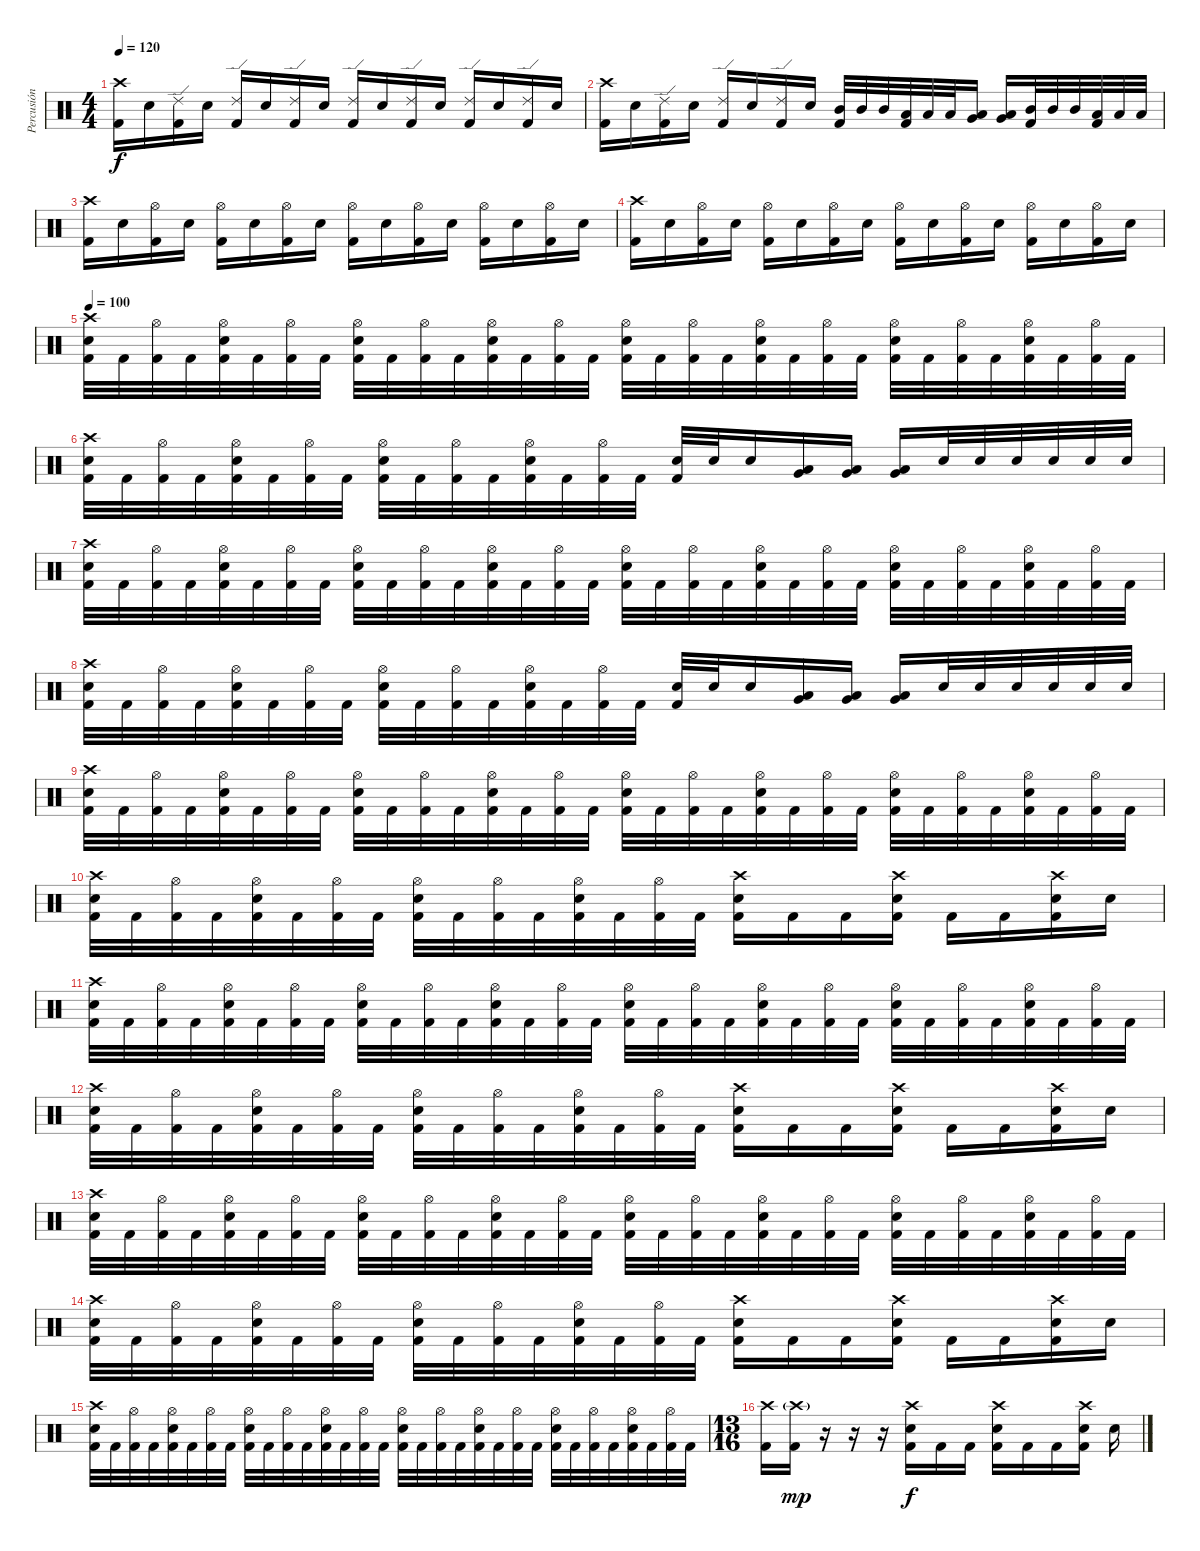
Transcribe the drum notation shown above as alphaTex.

\track ("Percusión" "Percusión") {instrument percussion}
\staff {score}
\articulation defaults
\ts (4 4)
\tempo 120
\clef neutral
\ks c
("Crash high (hit)" "Kick (hit) 2").16{dy f} "Electric Snare (hit)".16 ("Ride (edge) 2" "Kick (hit) 2").16 "Electric Snare (hit)".16 ("Ride (edge) 2" "Kick (hit) 2").16 "Electric Snare (hit)".16 ("Ride (edge) 2" "Kick (hit) 2").16 "Electric Snare (hit)".16 ("Ride (edge) 2" "Kick (hit) 2").16 "Electric Snare (hit)".16 ("Ride (edge) 2" "Kick (hit) 2").16 "Electric Snare (hit)".16 ("Ride (edge) 2" "Kick (hit) 2").16 "Electric Snare (hit)".16 ("Ride (edge) 2" "Kick (hit) 2").16 "Electric Snare (hit)".16 |
("Crash high (hit)" "Kick (hit) 2").16 "Electric Snare (hit)".16 ("Ride (edge) 2" "Kick (hit) 2").16 "Electric Snare (hit)".16 ("Ride (edge) 2" "Kick (hit) 2").16 "Electric Snare (hit)".16 ("Ride (edge) 2" "Kick (hit) 2").16 "Electric Snare (hit)".16 ("Mid Tom (hit)" "Kick (hit) 2").32 "Mid Tom (hit)".32 "Mid Tom (hit)".32 ("Low Tom (hit)" "Kick (hit) 2").32 "Low Tom (hit)".32 "Low Tom (hit)".32 ("Very Low Tom (hit)" "Low Floor Tom (hit)").16 ("Very Low Tom (hit)" "Low Floor Tom (hit)").16 ("Mid Tom (hit)" "Kick (hit) 2").32 "Mid Tom (hit)".32 "Mid Tom (hit)".32 ("Low Tom (hit)" "Kick (hit) 2").32 "Low Tom (hit)".32 "Low Tom (hit)".32 |
("Crash high (hit)" "Kick (hit) 2").16 "Electric Snare (hit)".16 ("Hi-Hat (open)" "Kick (hit) 2").16 "Electric Snare (hit)".16 ("Hi-Hat (open)" "Kick (hit) 2").16 "Electric Snare (hit)".16 ("Hi-Hat (open)" "Kick (hit) 2").16 "Electric Snare (hit)".16 ("Hi-Hat (open)" "Kick (hit) 2").16 "Electric Snare (hit)".16 ("Hi-Hat (open)" "Kick (hit) 2").16 "Electric Snare (hit)".16 ("Hi-Hat (open)" "Kick (hit) 2").16 "Electric Snare (hit)".16 ("Hi-Hat (open)" "Kick (hit) 2").16 "Electric Snare (hit)".16 |
("Crash high (hit)" "Kick (hit) 2").16 "Electric Snare (hit)".16 ("Hi-Hat (open)" "Kick (hit) 2").16 "Electric Snare (hit)".16 ("Hi-Hat (open)" "Kick (hit) 2").16 "Electric Snare (hit)".16 ("Hi-Hat (open)" "Kick (hit) 2").16 "Electric Snare (hit)".16 ("Hi-Hat (open)" "Kick (hit) 2").16 "Electric Snare (hit)".16 ("Hi-Hat (open)" "Kick (hit) 2").16 "Electric Snare (hit)".16 ("Hi-Hat (open)" "Kick (hit) 2").16 "Electric Snare (hit)".16 ("Hi-Hat (open)" "Kick (hit) 2").16 "Electric Snare (hit)".16 |
\tempo 100
("Crash high (hit)" "Electric Snare (hit)" "Kick (hit) 2").32 "Kick (hit) 2".32 ("Hi-Hat (open)" "Kick (hit) 2").32 "Kick (hit) 2".32 ("Hi-Hat (open)" "Electric Snare (hit)" "Kick (hit) 2").32 "Kick (hit) 2".32 ("Hi-Hat (open)" "Kick (hit) 2").32 "Kick (hit) 2".32 ("Hi-Hat (open)" "Electric Snare (hit)" "Kick (hit) 2").32 "Kick (hit) 2".32 ("Hi-Hat (open)" "Kick (hit) 2").32 "Kick (hit) 2".32 ("Hi-Hat (open)" "Electric Snare (hit)" "Kick (hit) 2").32 "Kick (hit) 2".32 ("Hi-Hat (open)" "Kick (hit) 2").32 "Kick (hit) 2".32 ("Hi-Hat (open)" "Electric Snare (hit)" "Kick (hit) 2").32 "Kick (hit) 2".32 ("Hi-Hat (open)" "Kick (hit) 2").32 "Kick (hit) 2".32 ("Hi-Hat (open)" "Electric Snare (hit)" "Kick (hit) 2").32 "Kick (hit) 2".32 ("Hi-Hat (open)" "Kick (hit) 2").32 "Kick (hit) 2".32 ("Hi-Hat (open)" "Electric Snare (hit)" "Kick (hit) 2").32 "Kick (hit) 2".32 ("Hi-Hat (open)" "Kick (hit) 2").32 "Kick (hit) 2".32 ("Hi-Hat (open)" "Electric Snare (hit)" "Kick (hit) 2").32 "Kick (hit) 2".32 ("Hi-Hat (open)" "Kick (hit) 2").32 "Kick (hit) 2".32 |
("Crash high (hit)" "Electric Snare (hit)" "Kick (hit) 2").32 "Kick (hit) 2".32 ("Hi-Hat (open)" "Kick (hit) 2").32 "Kick (hit) 2".32 ("Hi-Hat (open)" "Electric Snare (hit)" "Kick (hit) 2").32 "Kick (hit) 2".32 ("Hi-Hat (open)" "Kick (hit) 2").32 "Kick (hit) 2".32 ("Hi-Hat (open)" "Electric Snare (hit)" "Kick (hit) 2").32 "Kick (hit) 2".32 ("Hi-Hat (open)" "Kick (hit) 2").32 "Kick (hit) 2".32 ("Hi-Hat (open)" "Electric Snare (hit)" "Kick (hit) 2").32 "Kick (hit) 2".32 ("Hi-Hat (open)" "Kick (hit) 2").32 "Kick (hit) 2".32 ("Electric Snare (hit)" "Kick (hit) 2").32 "Electric Snare (hit)".32 "Electric Snare (hit)".16 ("Very Low Tom (hit)" "Low Floor Tom (hit)").16 ("Very Low Tom (hit)" "Low Floor Tom (hit)").16 ("Very Low Tom (hit)" "Low Floor Tom (hit)").16 "Electric Snare (hit)".32 "Electric Snare (hit)".32 "Electric Snare (hit)".32 "Electric Snare (hit)".32 "Electric Snare (hit)".32 "Electric Snare (hit)".32 |
("Crash high (hit)" "Electric Snare (hit)" "Kick (hit) 2").32 "Kick (hit) 2".32 ("Hi-Hat (open)" "Kick (hit) 2").32 "Kick (hit) 2".32 ("Hi-Hat (open)" "Electric Snare (hit)" "Kick (hit) 2").32 "Kick (hit) 2".32 ("Hi-Hat (open)" "Kick (hit) 2").32 "Kick (hit) 2".32 ("Hi-Hat (open)" "Electric Snare (hit)" "Kick (hit) 2").32 "Kick (hit) 2".32 ("Hi-Hat (open)" "Kick (hit) 2").32 "Kick (hit) 2".32 ("Hi-Hat (open)" "Electric Snare (hit)" "Kick (hit) 2").32 "Kick (hit) 2".32 ("Hi-Hat (open)" "Kick (hit) 2").32 "Kick (hit) 2".32 ("Hi-Hat (open)" "Electric Snare (hit)" "Kick (hit) 2").32 "Kick (hit) 2".32 ("Hi-Hat (open)" "Kick (hit) 2").32 "Kick (hit) 2".32 ("Hi-Hat (open)" "Electric Snare (hit)" "Kick (hit) 2").32 "Kick (hit) 2".32 ("Hi-Hat (open)" "Kick (hit) 2").32 "Kick (hit) 2".32 ("Hi-Hat (open)" "Electric Snare (hit)" "Kick (hit) 2").32 "Kick (hit) 2".32 ("Hi-Hat (open)" "Kick (hit) 2").32 "Kick (hit) 2".32 ("Hi-Hat (open)" "Electric Snare (hit)" "Kick (hit) 2").32 "Kick (hit) 2".32 ("Hi-Hat (open)" "Kick (hit) 2").32 "Kick (hit) 2".32 |
("Crash high (hit)" "Electric Snare (hit)" "Kick (hit) 2").32 "Kick (hit) 2".32 ("Hi-Hat (open)" "Kick (hit) 2").32 "Kick (hit) 2".32 ("Hi-Hat (open)" "Electric Snare (hit)" "Kick (hit) 2").32 "Kick (hit) 2".32 ("Hi-Hat (open)" "Kick (hit) 2").32 "Kick (hit) 2".32 ("Hi-Hat (open)" "Electric Snare (hit)" "Kick (hit) 2").32 "Kick (hit) 2".32 ("Hi-Hat (open)" "Kick (hit) 2").32 "Kick (hit) 2".32 ("Hi-Hat (open)" "Electric Snare (hit)" "Kick (hit) 2").32 "Kick (hit) 2".32 ("Hi-Hat (open)" "Kick (hit) 2").32 "Kick (hit) 2".32 ("Electric Snare (hit)" "Kick (hit) 2").32 "Electric Snare (hit)".32 "Electric Snare (hit)".16 ("Very Low Tom (hit)" "Low Floor Tom (hit)").16 ("Very Low Tom (hit)" "Low Floor Tom (hit)").16 ("Very Low Tom (hit)" "Low Floor Tom (hit)").16 "Electric Snare (hit)".32 "Electric Snare (hit)".32 "Electric Snare (hit)".32 "Electric Snare (hit)".32 "Electric Snare (hit)".32 "Electric Snare (hit)".32 |
("Crash high (hit)" "Electric Snare (hit)" "Kick (hit) 2").32 "Kick (hit) 2".32 ("Hi-Hat (open)" "Kick (hit) 2").32 "Kick (hit) 2".32 ("Hi-Hat (open)" "Electric Snare (hit)" "Kick (hit) 2").32 "Kick (hit) 2".32 ("Hi-Hat (open)" "Kick (hit) 2").32 "Kick (hit) 2".32 ("Hi-Hat (open)" "Electric Snare (hit)" "Kick (hit) 2").32 "Kick (hit) 2".32 ("Hi-Hat (open)" "Kick (hit) 2").32 "Kick (hit) 2".32 ("Hi-Hat (open)" "Electric Snare (hit)" "Kick (hit) 2").32 "Kick (hit) 2".32 ("Hi-Hat (open)" "Kick (hit) 2").32 "Kick (hit) 2".32 ("Hi-Hat (open)" "Electric Snare (hit)" "Kick (hit) 2").32 "Kick (hit) 2".32 ("Hi-Hat (open)" "Kick (hit) 2").32 "Kick (hit) 2".32 ("Hi-Hat (open)" "Electric Snare (hit)" "Kick (hit) 2").32 "Kick (hit) 2".32 ("Hi-Hat (open)" "Kick (hit) 2").32 "Kick (hit) 2".32 ("Hi-Hat (open)" "Electric Snare (hit)" "Kick (hit) 2").32 "Kick (hit) 2".32 ("Hi-Hat (open)" "Kick (hit) 2").32 "Kick (hit) 2".32 ("Hi-Hat (open)" "Electric Snare (hit)" "Kick (hit) 2").32 "Kick (hit) 2".32 ("Hi-Hat (open)" "Kick (hit) 2").32 "Kick (hit) 2".32 |
("Crash high (hit)" "Electric Snare (hit)" "Kick (hit) 2").32 "Kick (hit) 2".32 ("Hi-Hat (open)" "Kick (hit) 2").32 "Kick (hit) 2".32 ("Hi-Hat (open)" "Electric Snare (hit)" "Kick (hit) 2").32 "Kick (hit) 2".32 ("Hi-Hat (open)" "Kick (hit) 2").32 "Kick (hit) 2".32 ("Hi-Hat (open)" "Electric Snare (hit)" "Kick (hit) 2").32 "Kick (hit) 2".32 ("Hi-Hat (open)" "Kick (hit) 2").32 "Kick (hit) 2".32 ("Hi-Hat (open)" "Electric Snare (hit)" "Kick (hit) 2").32 "Kick (hit) 2".32 ("Hi-Hat (open)" "Kick (hit) 2").32 "Kick (hit) 2".32 ("Crash high (hit)" "Electric Snare (hit)" "Kick (hit) 2").16 "Kick (hit) 2".16 "Kick (hit) 2".16 ("Crash high (hit)" "Electric Snare (hit)" "Kick (hit) 2").16 "Kick (hit) 2".16 "Kick (hit) 2".16 ("Crash high (hit)" "Electric Snare (hit)" "Kick (hit) 2").16 "Electric Snare (hit)".16 |
("Crash high (hit)" "Electric Snare (hit)" "Kick (hit) 2").32 "Kick (hit) 2".32 ("Hi-Hat (open)" "Kick (hit) 2").32 "Kick (hit) 2".32 ("Hi-Hat (open)" "Electric Snare (hit)" "Kick (hit) 2").32 "Kick (hit) 2".32 ("Hi-Hat (open)" "Kick (hit) 2").32 "Kick (hit) 2".32 ("Hi-Hat (open)" "Electric Snare (hit)" "Kick (hit) 2").32 "Kick (hit) 2".32 ("Hi-Hat (open)" "Kick (hit) 2").32 "Kick (hit) 2".32 ("Hi-Hat (open)" "Electric Snare (hit)" "Kick (hit) 2").32 "Kick (hit) 2".32 ("Hi-Hat (open)" "Kick (hit) 2").32 "Kick (hit) 2".32 ("Hi-Hat (open)" "Electric Snare (hit)" "Kick (hit) 2").32 "Kick (hit) 2".32 ("Hi-Hat (open)" "Kick (hit) 2").32 "Kick (hit) 2".32 ("Hi-Hat (open)" "Electric Snare (hit)" "Kick (hit) 2").32 "Kick (hit) 2".32 ("Hi-Hat (open)" "Kick (hit) 2").32 "Kick (hit) 2".32 ("Hi-Hat (open)" "Electric Snare (hit)" "Kick (hit) 2").32 "Kick (hit) 2".32 ("Hi-Hat (open)" "Kick (hit) 2").32 "Kick (hit) 2".32 ("Hi-Hat (open)" "Electric Snare (hit)" "Kick (hit) 2").32 "Kick (hit) 2".32 ("Hi-Hat (open)" "Kick (hit) 2").32 "Kick (hit) 2".32 |
("Crash high (hit)" "Electric Snare (hit)" "Kick (hit) 2").32 "Kick (hit) 2".32 ("Hi-Hat (open)" "Kick (hit) 2").32 "Kick (hit) 2".32 ("Hi-Hat (open)" "Electric Snare (hit)" "Kick (hit) 2").32 "Kick (hit) 2".32 ("Hi-Hat (open)" "Kick (hit) 2").32 "Kick (hit) 2".32 ("Hi-Hat (open)" "Electric Snare (hit)" "Kick (hit) 2").32 "Kick (hit) 2".32 ("Hi-Hat (open)" "Kick (hit) 2").32 "Kick (hit) 2".32 ("Hi-Hat (open)" "Electric Snare (hit)" "Kick (hit) 2").32 "Kick (hit) 2".32 ("Hi-Hat (open)" "Kick (hit) 2").32 "Kick (hit) 2".32 ("Crash high (hit)" "Electric Snare (hit)" "Kick (hit) 2").16 "Kick (hit) 2".16 "Kick (hit) 2".16 ("Crash high (hit)" "Electric Snare (hit)" "Kick (hit) 2").16 "Kick (hit) 2".16 "Kick (hit) 2".16 ("Crash high (hit)" "Electric Snare (hit)" "Kick (hit) 2").16 "Electric Snare (hit)".16 |
("Crash high (hit)" "Electric Snare (hit)" "Kick (hit) 2").32 "Kick (hit) 2".32 ("Hi-Hat (open)" "Kick (hit) 2").32 "Kick (hit) 2".32 ("Hi-Hat (open)" "Electric Snare (hit)" "Kick (hit) 2").32 "Kick (hit) 2".32 ("Hi-Hat (open)" "Kick (hit) 2").32 "Kick (hit) 2".32 ("Hi-Hat (open)" "Electric Snare (hit)" "Kick (hit) 2").32 "Kick (hit) 2".32 ("Hi-Hat (open)" "Kick (hit) 2").32 "Kick (hit) 2".32 ("Hi-Hat (open)" "Electric Snare (hit)" "Kick (hit) 2").32 "Kick (hit) 2".32 ("Hi-Hat (open)" "Kick (hit) 2").32 "Kick (hit) 2".32 ("Hi-Hat (open)" "Electric Snare (hit)" "Kick (hit) 2").32 "Kick (hit) 2".32 ("Hi-Hat (open)" "Kick (hit) 2").32 "Kick (hit) 2".32 ("Hi-Hat (open)" "Electric Snare (hit)" "Kick (hit) 2").32 "Kick (hit) 2".32 ("Hi-Hat (open)" "Kick (hit) 2").32 "Kick (hit) 2".32 ("Hi-Hat (open)" "Electric Snare (hit)" "Kick (hit) 2").32 "Kick (hit) 2".32 ("Hi-Hat (open)" "Kick (hit) 2").32 "Kick (hit) 2".32 ("Hi-Hat (open)" "Electric Snare (hit)" "Kick (hit) 2").32 "Kick (hit) 2".32 ("Hi-Hat (open)" "Kick (hit) 2").32 "Kick (hit) 2".32 |
("Crash high (hit)" "Electric Snare (hit)" "Kick (hit) 2").32 "Kick (hit) 2".32 ("Hi-Hat (open)" "Kick (hit) 2").32 "Kick (hit) 2".32 ("Hi-Hat (open)" "Electric Snare (hit)" "Kick (hit) 2").32 "Kick (hit) 2".32 ("Hi-Hat (open)" "Kick (hit) 2").32 "Kick (hit) 2".32 ("Hi-Hat (open)" "Electric Snare (hit)" "Kick (hit) 2").32 "Kick (hit) 2".32 ("Hi-Hat (open)" "Kick (hit) 2").32 "Kick (hit) 2".32 ("Hi-Hat (open)" "Electric Snare (hit)" "Kick (hit) 2").32 "Kick (hit) 2".32 ("Hi-Hat (open)" "Kick (hit) 2").32 "Kick (hit) 2".32 ("Crash high (hit)" "Electric Snare (hit)" "Kick (hit) 2").16 "Kick (hit) 2".16 "Kick (hit) 2".16 ("Crash high (hit)" "Electric Snare (hit)" "Kick (hit) 2").16 "Kick (hit) 2".16 "Kick (hit) 2".16 ("Crash high (hit)" "Electric Snare (hit)" "Kick (hit) 2").16 "Electric Snare (hit)".16 |
("Crash high (hit)" "Electric Snare (hit)" "Kick (hit) 2").32 "Kick (hit) 2".32 ("Hi-Hat (open)" "Kick (hit) 2").32 "Kick (hit) 2".32 ("Hi-Hat (open)" "Electric Snare (hit)" "Kick (hit) 2").32 "Kick (hit) 2".32 ("Hi-Hat (open)" "Kick (hit) 2").32 "Kick (hit) 2".32 ("Hi-Hat (open)" "Electric Snare (hit)" "Kick (hit) 2").32 "Kick (hit) 2".32 ("Hi-Hat (open)" "Kick (hit) 2").32 "Kick (hit) 2".32 ("Hi-Hat (open)" "Electric Snare (hit)" "Kick (hit) 2").32 "Kick (hit) 2".32 ("Hi-Hat (open)" "Kick (hit) 2").32 "Kick (hit) 2".32 ("Hi-Hat (open)" "Electric Snare (hit)" "Kick (hit) 2").32 "Kick (hit) 2".32 ("Hi-Hat (open)" "Kick (hit) 2").32 "Kick (hit) 2".32 ("Hi-Hat (open)" "Electric Snare (hit)" "Kick (hit) 2").32 "Kick (hit) 2".32 ("Hi-Hat (open)" "Kick (hit) 2").32 "Kick (hit) 2".32 ("Hi-Hat (open)" "Electric Snare (hit)" "Kick (hit) 2").32 "Kick (hit) 2".32 ("Hi-Hat (open)" "Kick (hit) 2").32 "Kick (hit) 2".32 ("Hi-Hat (open)" "Electric Snare (hit)" "Kick (hit) 2").32 "Kick (hit) 2".32 ("Hi-Hat (open)" "Kick (hit) 2").32 "Kick (hit) 2".32 |
\ts (13 16)
("Crash high (hit)" "Kick (hit) 2").16 ("Crash high (hit)"{g} "Kick (hit) 2").16{dy mp} r.16 r.16 r.16 ("Crash high (hit)" "Electric Snare (hit)" "Kick (hit) 2").16{dy f} "Kick (hit) 2".16 "Kick (hit) 2".16 ("Crash high (hit)" "Electric Snare (hit)" "Kick (hit) 2").16 "Kick (hit) 2".16 "Kick (hit) 2".16 ("Crash high (hit)" "Electric Snare (hit)" "Kick (hit) 2").16 "Electric Snare (hit)".16
